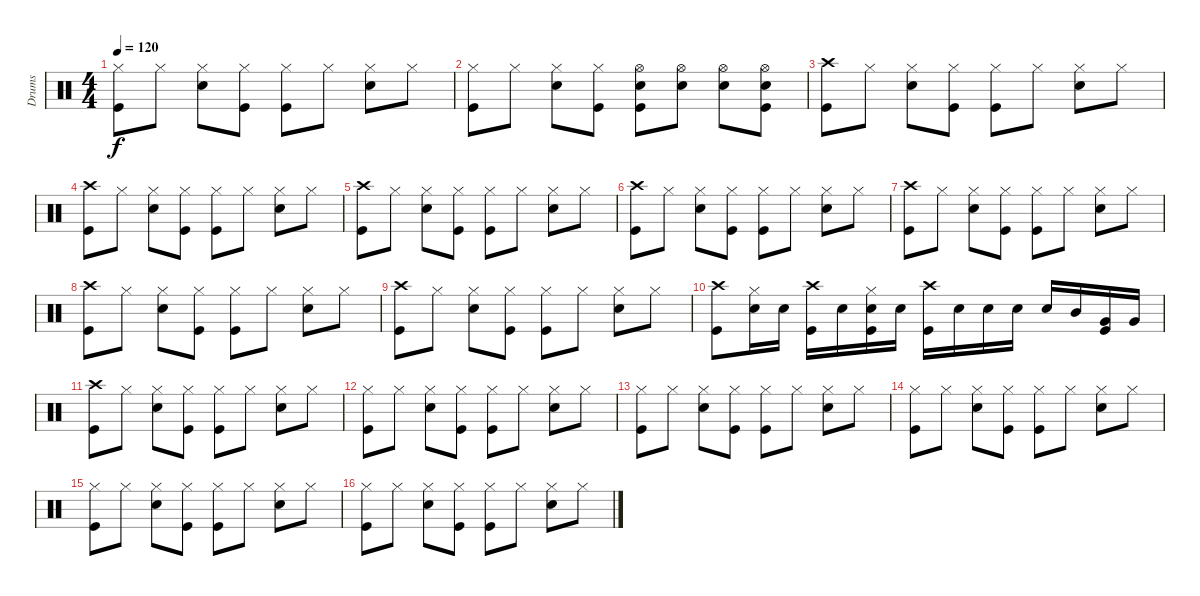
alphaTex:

\track ("Drums" "Drums") {instrument percussion}
\staff {score}
\articulation defaults
\ts (4 4)
\tempo 120
\clef neutral
\ks c
("Kick (hit)" "Hi-Hat (closed)").8{dy f} "Hi-Hat (closed)".8 ("Electric Snare (hit)" "Hi-Hat (closed)").8 ("Kick (hit)" "Hi-Hat (closed)").8 ("Kick (hit)" "Hi-Hat (closed)").8 "Hi-Hat (closed)".8 ("Electric Snare (hit)" "Hi-Hat (closed)").8 "Hi-Hat (closed)".8 |
("Kick (hit)" "Hi-Hat (closed)").8 "Hi-Hat (closed)".8 ("Electric Snare (hit)" "Hi-Hat (closed)").8 ("Kick (hit)" "Hi-Hat (closed)").8 ("Kick (hit)" "Electric Snare (hit)" "Hi-Hat (open)").8 ("Electric Snare (hit)" "Hi-Hat (open)").8 ("Electric Snare (hit)" "Hi-Hat (open)").8 ("Kick (hit)" "Electric Snare (hit)" "Hi-Hat (open)").8 |
("Kick (hit)" "Crash high (hit)").8 "Hi-Hat (closed)".8 ("Electric Snare (hit)" "Hi-Hat (closed)").8 ("Kick (hit)" "Hi-Hat (closed)").8 ("Kick (hit)" "Hi-Hat (closed)").8 "Hi-Hat (closed)".8 ("Electric Snare (hit)" "Hi-Hat (closed)").8 "Hi-Hat (closed)".8 |
("Kick (hit)" "Crash high (hit)").8 "Hi-Hat (closed)".8 ("Electric Snare (hit)" "Hi-Hat (closed)").8 ("Kick (hit)" "Hi-Hat (closed)").8 ("Kick (hit)" "Hi-Hat (closed)").8 "Hi-Hat (closed)".8 ("Electric Snare (hit)" "Hi-Hat (closed)").8 "Hi-Hat (closed)".8 |
("Kick (hit)" "Crash high (hit)").8 "Hi-Hat (closed)".8 ("Electric Snare (hit)" "Hi-Hat (closed)").8 ("Kick (hit)" "Hi-Hat (closed)").8 ("Kick (hit)" "Hi-Hat (closed)").8 "Hi-Hat (closed)".8 ("Electric Snare (hit)" "Hi-Hat (closed)").8 "Hi-Hat (closed)".8 |
("Kick (hit)" "Crash high (hit)").8 "Hi-Hat (closed)".8 ("Electric Snare (hit)" "Hi-Hat (closed)").8 ("Kick (hit)" "Hi-Hat (closed)").8 ("Kick (hit)" "Hi-Hat (closed)").8 "Hi-Hat (closed)".8 ("Electric Snare (hit)" "Hi-Hat (closed)").8 "Hi-Hat (closed)".8 |
("Kick (hit)" "Crash high (hit)").8 "Hi-Hat (closed)".8 ("Electric Snare (hit)" "Hi-Hat (closed)").8 ("Kick (hit)" "Hi-Hat (closed)").8 ("Kick (hit)" "Hi-Hat (closed)").8 "Hi-Hat (closed)".8 ("Electric Snare (hit)" "Hi-Hat (closed)").8 "Hi-Hat (closed)".8 |
("Kick (hit)" "Crash high (hit)").8 "Hi-Hat (closed)".8 ("Electric Snare (hit)" "Hi-Hat (closed)").8 ("Kick (hit)" "Hi-Hat (closed)").8 ("Kick (hit)" "Hi-Hat (closed)").8 "Hi-Hat (closed)".8 ("Electric Snare (hit)" "Hi-Hat (closed)").8 "Hi-Hat (closed)".8 |
("Kick (hit)" "Crash high (hit)").8 "Hi-Hat (closed)".8 ("Electric Snare (hit)" "Hi-Hat (closed)").8 ("Kick (hit)" "Hi-Hat (closed)").8 ("Kick (hit)" "Hi-Hat (closed)").8 "Hi-Hat (closed)".8 ("Electric Snare (hit)" "Hi-Hat (closed)").8 "Hi-Hat (closed)".8 |
("Kick (hit)" "Crash high (hit)").8 ("Electric Snare (hit)" "Hi-Hat (closed)").16 "Electric Snare (hit)".16 ("Kick (hit)" "Crash high (hit)").16 "Electric Snare (hit)".16 ("Kick (hit)" "Electric Snare (hit)" "Hi-Hat (closed)").16 "Electric Snare (hit)".16 ("Kick (hit)" "Crash high (hit)").16 "Electric Snare (hit)".16 "Electric Snare (hit)".16 "Electric Snare (hit)".16 "Electric Snare (hit)".16 "Mid Tom (hit)".16 ("Kick (hit)" "Very Low Tom (hit)").16 "Very Low Tom (hit)".16 |
("Kick (hit)" "Crash high (hit)").8 "Hi-Hat (closed)".8 ("Electric Snare (hit)" "Hi-Hat (closed)").8 ("Kick (hit)" "Hi-Hat (closed)").8 ("Kick (hit)" "Hi-Hat (closed)").8 "Hi-Hat (closed)".8 ("Electric Snare (hit)" "Hi-Hat (closed)").8 "Hi-Hat (closed)".8 |
("Kick (hit)" "Hi-Hat (closed)").8 "Hi-Hat (closed)".8 ("Electric Snare (hit)" "Hi-Hat (closed)").8 ("Kick (hit)" "Hi-Hat (closed)").8 ("Kick (hit)" "Hi-Hat (closed)").8 "Hi-Hat (closed)".8 ("Electric Snare (hit)" "Hi-Hat (closed)").8 "Hi-Hat (closed)".8 |
("Kick (hit)" "Hi-Hat (closed)").8 "Hi-Hat (closed)".8 ("Electric Snare (hit)" "Hi-Hat (closed)").8 ("Kick (hit)" "Hi-Hat (closed)").8 ("Kick (hit)" "Hi-Hat (closed)").8 "Hi-Hat (closed)".8 ("Electric Snare (hit)" "Hi-Hat (closed)").8 "Hi-Hat (closed)".8 |
("Kick (hit)" "Hi-Hat (closed)").8 "Hi-Hat (closed)".8 ("Electric Snare (hit)" "Hi-Hat (closed)").8 ("Kick (hit)" "Hi-Hat (closed)").8 ("Kick (hit)" "Hi-Hat (closed)").8 "Hi-Hat (closed)".8 ("Electric Snare (hit)" "Hi-Hat (closed)").8 "Hi-Hat (closed)".8 |
("Kick (hit)" "Hi-Hat (closed)").8 "Hi-Hat (closed)".8 ("Electric Snare (hit)" "Hi-Hat (closed)").8 ("Kick (hit)" "Hi-Hat (closed)").8 ("Kick (hit)" "Hi-Hat (closed)").8 "Hi-Hat (closed)".8 ("Electric Snare (hit)" "Hi-Hat (closed)").8 "Hi-Hat (closed)".8 |
("Kick (hit)" "Hi-Hat (closed)").8 "Hi-Hat (closed)".8 ("Electric Snare (hit)" "Hi-Hat (closed)").8 ("Kick (hit)" "Hi-Hat (closed)").8 ("Kick (hit)" "Hi-Hat (closed)").8 "Hi-Hat (closed)".8 ("Electric Snare (hit)" "Hi-Hat (closed)").8 "Hi-Hat (closed)".8
